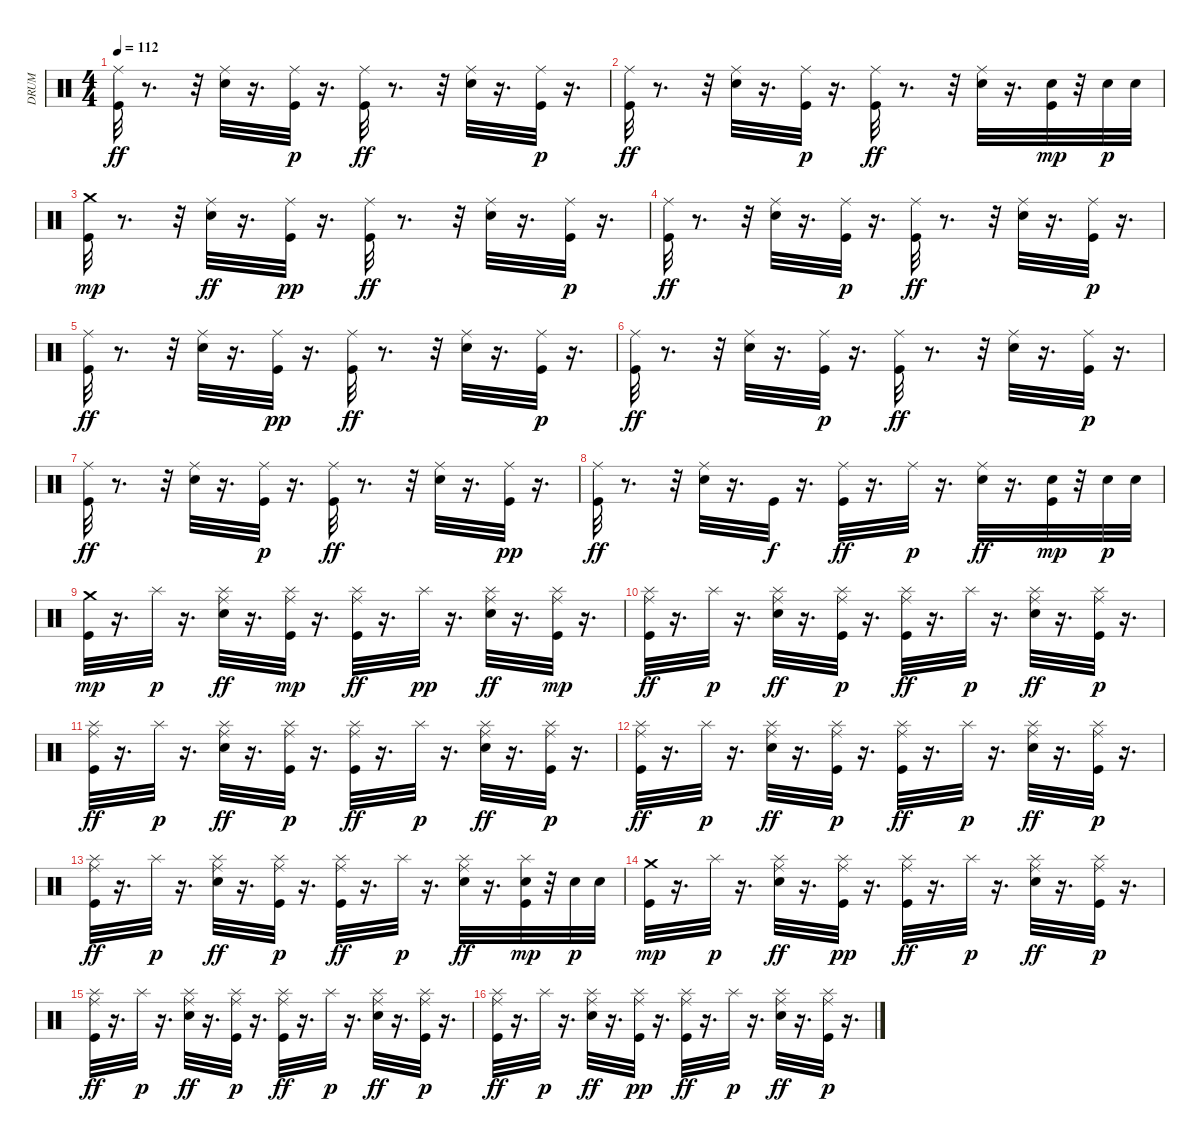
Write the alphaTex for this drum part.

\track ("DRUM" "DRUM") {instrument percussion}
\staff {score}
\articulation defaults
\ts (4 4)
\tempo 112
\clef neutral
\ks c
("Ride (middle)" "Kick (hit)").32{dy ff} r.8{d} r.32 ("Ride (middle)" "Snare (hit) 2").32 r.16{d} ("Kick (hit)" "Ride (middle)").32{dy p} r.16{d} ("Ride (middle)" "Kick (hit)").32{dy ff} r.8{d} r.32 ("Ride (middle)" "Snare (hit) 2").32 r.16{d} ("Kick (hit)" "Ride (middle)").32{dy p} r.16{d} |
("Ride (middle)" "Kick (hit)").32{dy ff} r.8{d} r.32 ("Ride (middle)" "Snare (hit) 2").32 r.16{d} ("Kick (hit)" "Ride (middle)").32{dy p} r.16{d} ("Ride (middle)" "Kick (hit)").32{dy ff} r.8{d} r.32 ("Ride (middle)" "Snare (hit) 2").32 r.16{d} ("Kick (hit)" "Snare (hit) 2").32{dy mp} r.32 "Snare (hit) 2".32{dy p} "Snare (hit) 2".32 |
("Kick (hit)" "Crash medium (hit)").32{dy mp} r.8{d} r.32 ("Ride (middle)" "Snare (hit) 2").32{dy ff} r.16{d} ("Kick (hit)" "Ride (middle)").32{dy pp} r.16{d} ("Ride (middle)" "Kick (hit)").32{dy ff} r.8{d} r.32 ("Ride (middle)" "Snare (hit) 2").32 r.16{d} ("Kick (hit)" "Ride (middle)").32{dy p} r.16{d} |
("Ride (middle)" "Kick (hit)").32{dy ff} r.8{d} r.32 ("Ride (middle)" "Snare (hit) 2").32 r.16{d} ("Kick (hit)" "Ride (middle)").32{dy p} r.16{d} ("Ride (middle)" "Kick (hit)").32{dy ff} r.8{d} r.32 ("Ride (middle)" "Snare (hit) 2").32 r.16{d} ("Kick (hit)" "Ride (middle)").32{dy p} r.16{d} |
("Ride (middle)" "Kick (hit)").32{dy ff} r.8{d} r.32 ("Ride (middle)" "Snare (hit) 2").32 r.16{d} ("Kick (hit)" "Ride (middle)").32{dy pp} r.16{d} ("Ride (middle)" "Kick (hit)").32{dy ff} r.8{d} r.32 ("Ride (middle)" "Snare (hit) 2").32 r.16{d} ("Kick (hit)" "Ride (middle)").32{dy p} r.16{d} |
("Ride (middle)" "Kick (hit)").32{dy ff} r.8{d} r.32 ("Ride (middle)" "Snare (hit) 2").32 r.16{d} ("Kick (hit)" "Ride (middle)").32{dy p} r.16{d} ("Ride (middle)" "Kick (hit)").32{dy ff} r.8{d} r.32 ("Ride (middle)" "Snare (hit) 2").32 r.16{d} ("Kick (hit)" "Ride (middle)").32{dy p} r.16{d} |
("Ride (middle)" "Kick (hit)").32{dy ff} r.8{d} r.32 ("Ride (middle)" "Snare (hit) 2").32 r.16{d} ("Kick (hit)" "Ride (middle)").32{dy p} r.16{d} ("Ride (middle)" "Kick (hit)").32{dy ff} r.8{d} r.32 ("Ride (middle)" "Snare (hit) 2").32 r.16{d} ("Kick (hit)" "Ride (middle)").32{dy pp} r.16{d} |
("Ride (middle)" "Kick (hit)").32{dy ff} r.8{d} r.32 ("Ride (middle)" "Snare (hit) 2").32 r.16{d} "Kick (hit)".32{dy f} r.16{d} ("Ride (middle)" "Kick (hit)").32{dy ff} r.16{d} "Ride (middle)".32{dy p} r.16{d} ("Ride (middle)" "Snare (hit) 2").32{dy ff} r.16{d} ("Kick (hit)" "Snare (hit) 2").32{dy mp} r.32 "Snare (hit) 2".32{dy p} "Snare (hit) 2".32 |
("Kick (hit)" "Crash medium (hit)").32{dy mp} r.16{d} "Splash (hit)".32{dy p} r.16{d} ("Splash (hit)" "Ride (middle)" "Snare (hit) 2").32{dy ff} r.16{d} ("Splash (hit)" "Kick (hit)" "Ride (middle)").32{dy mp} r.16{d} ("Splash (hit)" "Ride (middle)" "Kick (hit)").32{dy ff} r.16{d} "Splash (hit)".32{dy pp} r.16{d} ("Splash (hit)" "Ride (middle)" "Snare (hit) 2").32{dy ff} r.16{d} ("Splash (hit)" "Kick (hit)" "Ride (middle)").32{dy mp} r.16{d} |
("Splash (hit)" "Ride (middle)" "Kick (hit)").32{dy ff} r.16{d} "Splash (hit)".32{dy p} r.16{d} ("Splash (hit)" "Ride (middle)" "Snare (hit) 2").32{dy ff} r.16{d} ("Splash (hit)" "Kick (hit)" "Ride (middle)").32{dy p} r.16{d} ("Splash (hit)" "Ride (middle)" "Kick (hit)").32{dy ff} r.16{d} "Splash (hit)".32{dy p} r.16{d} ("Splash (hit)" "Ride (middle)" "Snare (hit) 2").32{dy ff} r.16{d} ("Splash (hit)" "Kick (hit)" "Ride (middle)").32{dy p} r.16{d} |
("Splash (hit)" "Ride (middle)" "Kick (hit)").32{dy ff} r.16{d} "Splash (hit)".32{dy p} r.16{d} ("Splash (hit)" "Ride (middle)" "Snare (hit) 2").32{dy ff} r.16{d} ("Splash (hit)" "Kick (hit)" "Ride (middle)").32{dy p} r.16{d} ("Splash (hit)" "Ride (middle)" "Kick (hit)").32{dy ff} r.16{d} "Splash (hit)".32{dy p} r.16{d} ("Splash (hit)" "Ride (middle)" "Snare (hit) 2").32{dy ff} r.16{d} ("Splash (hit)" "Kick (hit)" "Ride (middle)").32{dy p} r.16{d} |
("Splash (hit)" "Ride (middle)" "Kick (hit)").32{dy ff} r.16{d} "Splash (hit)".32{dy p} r.16{d} ("Splash (hit)" "Ride (middle)" "Snare (hit) 2").32{dy ff} r.16{d} ("Splash (hit)" "Kick (hit)" "Ride (middle)").32{dy p} r.16{d} ("Splash (hit)" "Ride (middle)" "Kick (hit)").32{dy ff} r.16{d} "Splash (hit)".32{dy p} r.16{d} ("Splash (hit)" "Ride (middle)" "Snare (hit) 2").32{dy ff} r.16{d} ("Splash (hit)" "Kick (hit)" "Ride (middle)").32{dy p} r.16{d} |
("Splash (hit)" "Ride (middle)" "Kick (hit)").32{dy ff} r.16{d} "Splash (hit)".32{dy p} r.16{d} ("Splash (hit)" "Ride (middle)" "Snare (hit) 2").32{dy ff} r.16{d} ("Splash (hit)" "Kick (hit)" "Ride (middle)").32{dy p} r.16{d} ("Splash (hit)" "Ride (middle)" "Kick (hit)").32{dy ff} r.16{d} "Splash (hit)".32{dy p} r.16{d} ("Splash (hit)" "Ride (middle)" "Snare (hit) 2").32{dy ff} r.16{d} ("Splash (hit)" "Kick (hit)" "Snare (hit) 2").32{dy mp} r.32 "Snare (hit) 2".32{dy p} "Snare (hit) 2".32 |
("Kick (hit)" "Crash medium (hit)").32{dy mp} r.16{d} "Splash (hit)".32{dy p} r.16{d} ("Splash (hit)" "Ride (middle)" "Snare (hit) 2").32{dy ff} r.16{d} ("Splash (hit)" "Kick (hit)" "Ride (middle)").32{dy pp} r.16{d} ("Splash (hit)" "Ride (middle)" "Kick (hit)").32{dy ff} r.16{d} "Splash (hit)".32{dy p} r.16{d} ("Splash (hit)" "Ride (middle)" "Snare (hit) 2").32{dy ff} r.16{d} ("Splash (hit)" "Kick (hit)" "Ride (middle)").32{dy p} r.16{d} |
("Splash (hit)" "Ride (middle)" "Kick (hit)").32{dy ff} r.16{d} "Splash (hit)".32{dy p} r.16{d} ("Splash (hit)" "Ride (middle)" "Snare (hit) 2").32{dy ff} r.16{d} ("Splash (hit)" "Kick (hit)" "Ride (middle)").32{dy p} r.16{d} ("Splash (hit)" "Ride (middle)" "Kick (hit)").32{dy ff} r.16{d} "Splash (hit)".32{dy p} r.16{d} ("Splash (hit)" "Ride (middle)" "Snare (hit) 2").32{dy ff} r.16{d} ("Splash (hit)" "Kick (hit)" "Ride (middle)").32{dy p} r.16{d} |
("Splash (hit)" "Ride (middle)" "Kick (hit)").32{dy ff} r.16{d} "Splash (hit)".32{dy p} r.16{d} ("Splash (hit)" "Ride (middle)" "Snare (hit) 2").32{dy ff} r.16{d} ("Splash (hit)" "Kick (hit)" "Ride (middle)").32{dy pp} r.16{d} ("Splash (hit)" "Ride (middle)" "Kick (hit)").32{dy ff} r.16{d} "Splash (hit)".32{dy p} r.16{d} ("Splash (hit)" "Ride (middle)" "Snare (hit) 2").32{dy ff} r.16{d} ("Splash (hit)" "Kick (hit)" "Ride (middle)").32{dy p} r.16{d}
